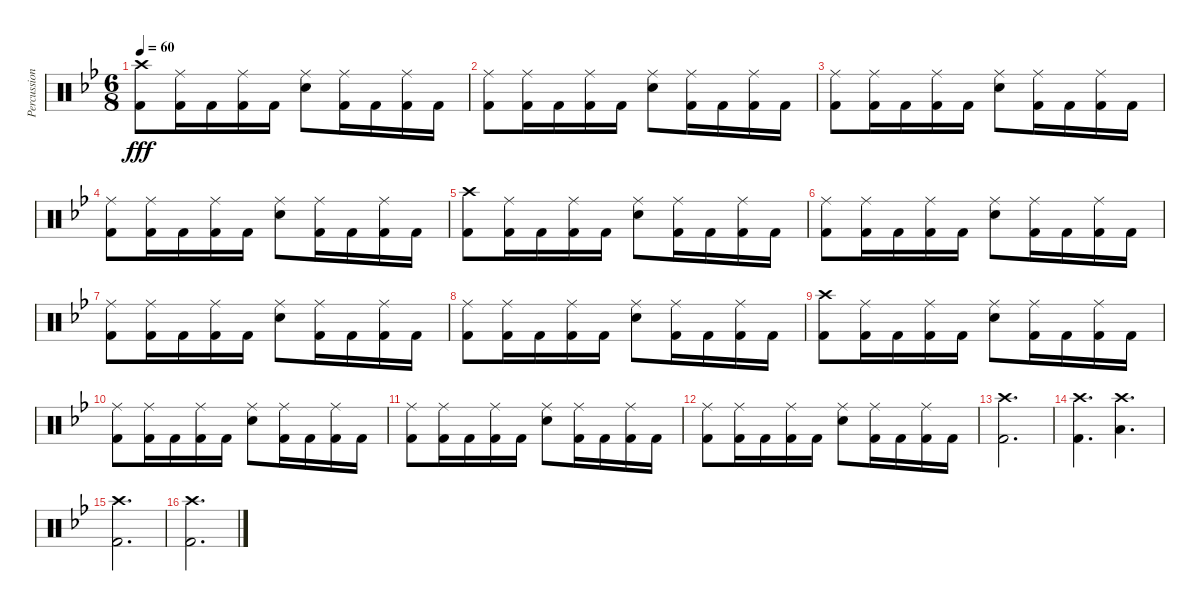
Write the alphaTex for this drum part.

\track ("Percussion" "Percussion") {instrument percussion}
\staff {score}
\articulation defaults
\ts (6 8)
\tempo 60
\clef neutral
\ks gminor
("Crash high (hit)" "Kick (hit) 2").8{dy fff} ("Ride (middle)" "Kick (hit) 2").16 "Kick (hit) 2".16 ("Ride (middle)" "Kick (hit) 2").16 "Kick (hit) 2".16 ("Ride (middle)" "Electric Snare (hit)").8 ("Ride (middle)" "Kick (hit) 2").16 "Kick (hit) 2".16 ("Ride (middle)" "Kick (hit) 2").16 "Kick (hit) 2".16 |
("Ride (middle)" "Kick (hit) 2").8 ("Ride (middle)" "Kick (hit) 2").16 "Kick (hit) 2".16 ("Ride (middle)" "Kick (hit) 2").16 "Kick (hit) 2".16 ("Ride (middle)" "Electric Snare (hit)").8 ("Ride (middle)" "Kick (hit) 2").16 "Kick (hit) 2".16 ("Ride (middle)" "Kick (hit) 2").16 "Kick (hit) 2".16 |
("Ride (middle)" "Kick (hit) 2").8 ("Ride (middle)" "Kick (hit) 2").16 "Kick (hit) 2".16 ("Ride (middle)" "Kick (hit) 2").16 "Kick (hit) 2".16 ("Ride (middle)" "Electric Snare (hit)").8 ("Ride (middle)" "Kick (hit) 2").16 "Kick (hit) 2".16 ("Ride (middle)" "Kick (hit) 2").16 "Kick (hit) 2".16 |
("Ride (middle)" "Kick (hit) 2").8 ("Ride (middle)" "Kick (hit) 2").16 "Kick (hit) 2".16 ("Ride (middle)" "Kick (hit) 2").16 "Kick (hit) 2".16 ("Ride (middle)" "Electric Snare (hit)").8 ("Ride (middle)" "Kick (hit) 2").16 "Kick (hit) 2".16 ("Ride (middle)" "Kick (hit) 2").16 "Kick (hit) 2".16 |
("Crash high (hit)" "Kick (hit) 2").8 ("Ride (middle)" "Kick (hit) 2").16 "Kick (hit) 2".16 ("Ride (middle)" "Kick (hit) 2").16 "Kick (hit) 2".16 ("Ride (middle)" "Electric Snare (hit)").8 ("Ride (middle)" "Kick (hit) 2").16 "Kick (hit) 2".16 ("Ride (middle)" "Kick (hit) 2").16 "Kick (hit) 2".16 |
("Ride (middle)" "Kick (hit) 2").8 ("Ride (middle)" "Kick (hit) 2").16 "Kick (hit) 2".16 ("Ride (middle)" "Kick (hit) 2").16 "Kick (hit) 2".16 ("Ride (middle)" "Electric Snare (hit)").8 ("Ride (middle)" "Kick (hit) 2").16 "Kick (hit) 2".16 ("Ride (middle)" "Kick (hit) 2").16 "Kick (hit) 2".16 |
("Ride (middle)" "Kick (hit) 2").8 ("Ride (middle)" "Kick (hit) 2").16 "Kick (hit) 2".16 ("Ride (middle)" "Kick (hit) 2").16 "Kick (hit) 2".16 ("Ride (middle)" "Electric Snare (hit)").8 ("Ride (middle)" "Kick (hit) 2").16 "Kick (hit) 2".16 ("Ride (middle)" "Kick (hit) 2").16 "Kick (hit) 2".16 |
("Ride (middle)" "Kick (hit) 2").8 ("Ride (middle)" "Kick (hit) 2").16 "Kick (hit) 2".16 ("Ride (middle)" "Kick (hit) 2").16 "Kick (hit) 2".16 ("Ride (middle)" "Electric Snare (hit)").8 ("Ride (middle)" "Kick (hit) 2").16 "Kick (hit) 2".16 ("Ride (middle)" "Kick (hit) 2").16 "Kick (hit) 2".16 |
("Crash high (hit)" "Kick (hit) 2").8 ("Ride (middle)" "Kick (hit) 2").16 "Kick (hit) 2".16 ("Ride (middle)" "Kick (hit) 2").16 "Kick (hit) 2".16 ("Ride (middle)" "Electric Snare (hit)").8 ("Ride (middle)" "Kick (hit) 2").16 "Kick (hit) 2".16 ("Ride (middle)" "Kick (hit) 2").16 "Kick (hit) 2".16 |
("Ride (middle)" "Kick (hit) 2").8 ("Ride (middle)" "Kick (hit) 2").16 "Kick (hit) 2".16 ("Ride (middle)" "Kick (hit) 2").16 "Kick (hit) 2".16 ("Ride (middle)" "Electric Snare (hit)").8 ("Ride (middle)" "Kick (hit) 2").16 "Kick (hit) 2".16 ("Ride (middle)" "Kick (hit) 2").16 "Kick (hit) 2".16 |
("Ride (middle)" "Kick (hit) 2").8 ("Ride (middle)" "Kick (hit) 2").16 "Kick (hit) 2".16 ("Ride (middle)" "Kick (hit) 2").16 "Kick (hit) 2".16 ("Ride (middle)" "Electric Snare (hit)").8 ("Ride (middle)" "Kick (hit) 2").16 "Kick (hit) 2".16 ("Ride (middle)" "Kick (hit) 2").16 "Kick (hit) 2".16 |
("Ride (middle)" "Kick (hit) 2").8 ("Ride (middle)" "Kick (hit) 2").16 "Kick (hit) 2".16 ("Ride (middle)" "Kick (hit) 2").16 "Kick (hit) 2".16 ("Ride (middle)" "Electric Snare (hit)").8 ("Ride (middle)" "Kick (hit) 2").16 "Kick (hit) 2".16 ("Ride (middle)" "Kick (hit) 2").16 "Kick (hit) 2".16 |
("Crash high (hit)" "Kick (hit) 2").2{d} |
("Crash high (hit)" "Kick (hit) 2").4{d} ("Crash high (hit)" "Low Floor Tom (hit)").4{d} |
("Crash high (hit)" "Kick (hit) 2").2{d} |
("Crash high (hit)" "Kick (hit) 2").2{d}
